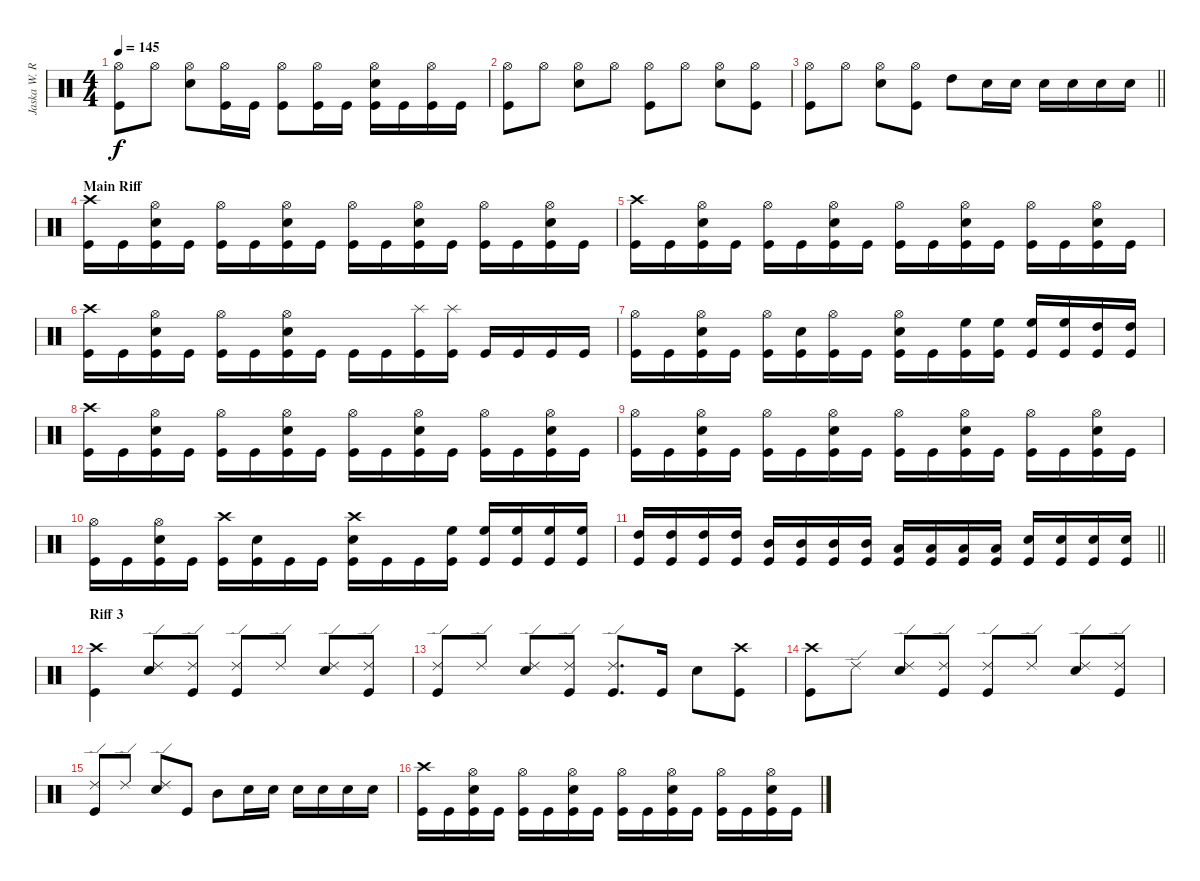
\track ("Jaska W. Raatikainen" "Jaska W. R") {instrument percussion}
\staff {score}
\articulation defaults
\ts (4 4)
\tempo 145
\clef neutral
\ks c
("Hi-Hat (open)" "Kick (hit)").8{dy f} "Hi-Hat (open)".8 ("Hi-Hat (open)" "Snare (hit) 2").8 ("Hi-Hat (open)" "Kick (hit)").16 "Kick (hit)".16 ("Hi-Hat (open)" "Kick (hit)").8 ("Hi-Hat (open)" "Kick (hit)").16 "Kick (hit)".16 ("Hi-Hat (open)" "Snare (hit) 2" "Kick (hit)").16 "Kick (hit)".16 ("Hi-Hat (open)" "Kick (hit)").16 "Kick (hit)".16 |
("Hi-Hat (open)" "Kick (hit)").8 "Hi-Hat (open)".8 ("Hi-Hat (open)" "Snare (hit) 2").8 "Hi-Hat (open)".8 ("Hi-Hat (open)" "Kick (hit)").8 "Hi-Hat (open)".8 ("Hi-Hat (open)" "Snare (hit) 2").8 ("Hi-Hat (open)" "Kick (hit)").8 |
\barLineRight lightlight
("Hi-Hat (open)" "Kick (hit)").8 "Hi-Hat (open)".8 ("Hi-Hat (open)" "Snare (hit) 2").8 ("Hi-Hat (open)" "Kick (hit)").8 "High Tom (hit)".8 "Snare (hit) 2".16 "Snare (hit) 2".16 "Snare (hit) 2".16 "Snare (hit) 2".16 "Snare (hit) 2".16 "Snare (hit) 2".16 |
\section ("" "Main Riff")
("Crash high (hit)" "Kick (hit)").16 "Kick (hit)".16 ("Hi-Hat (open)" "Snare (hit) 2" "Kick (hit)").16 "Kick (hit)".16 ("Hi-Hat (open)" "Kick (hit)").16 "Kick (hit)".16 ("Hi-Hat (open)" "Snare (hit) 2" "Kick (hit)").16 "Kick (hit)".16 ("Hi-Hat (open)" "Kick (hit)").16 "Kick (hit)".16 ("Hi-Hat (open)" "Snare (hit) 2" "Kick (hit)").16 "Kick (hit)".16 ("Hi-Hat (open)" "Kick (hit)").16 "Kick (hit)".16 ("Hi-Hat (open)" "Snare (hit) 2" "Kick (hit)").16 "Kick (hit)".16 |
("Crash high (hit)" "Kick (hit)").16 "Kick (hit)".16 ("Hi-Hat (open)" "Snare (hit) 2" "Kick (hit)").16 "Kick (hit)".16 ("Hi-Hat (open)" "Kick (hit)").16 "Kick (hit)".16 ("Hi-Hat (open)" "Snare (hit) 2" "Kick (hit)").16 "Kick (hit)".16 ("Hi-Hat (open)" "Kick (hit)").16 "Kick (hit)".16 ("Hi-Hat (open)" "Snare (hit) 2" "Kick (hit)").16 "Kick (hit)".16 ("Hi-Hat (open)" "Kick (hit)").16 "Kick (hit)".16 ("Hi-Hat (open)" "Snare (hit) 2" "Kick (hit)").16 "Kick (hit)".16 |
("Crash high (hit)" "Kick (hit)").16 "Kick (hit)".16 ("Hi-Hat (open)" "Snare (hit) 2" "Kick (hit)").16 "Kick (hit)".16 ("Hi-Hat (open)" "Kick (hit)").16 "Kick (hit)".16 ("Hi-Hat (open)" "Snare (hit) 2" "Kick (hit)").16 "Kick (hit)".16 "Kick (hit)".16 "Kick (hit)".16 ("Splash (hit)" "Kick (hit)").16 ("Splash (hit)" "Kick (hit)").16 "Kick (hit)".16 "Kick (hit)".16 "Kick (hit)".16 "Kick (hit)".16 |
("Hi-Hat (open)" "Kick (hit)").16 "Kick (hit)".16 ("Hi-Hat (open)" "Snare (hit) 2" "Kick (hit)").16 "Kick (hit)".16 ("Hi-Hat (open)" "Kick (hit)").16 ("Snare (hit) 2" "Kick (hit)").16 ("Hi-Hat (open)" "Kick (hit)").16 "Kick (hit)".16 ("Hi-Hat (open)" "Snare (hit) 2" "Kick (hit)").16 "Kick (hit)".16 ("High Floor Tom (hit)" "Kick (hit)").16 ("High Floor Tom (hit)" "Kick (hit)").16 ("High Floor Tom (hit)" "Kick (hit)").16 ("High Floor Tom (hit)" "Kick (hit)").16 ("High Tom (hit)" "Kick (hit)").16 ("High Tom (hit)" "Kick (hit)").16 |
("Crash high (hit)" "Kick (hit)").16 "Kick (hit)".16 ("Hi-Hat (open)" "Snare (hit) 2" "Kick (hit)").16 "Kick (hit)".16 ("Hi-Hat (open)" "Kick (hit)").16 "Kick (hit)".16 ("Hi-Hat (open)" "Snare (hit) 2" "Kick (hit)").16 "Kick (hit)".16 ("Hi-Hat (open)" "Kick (hit)").16 "Kick (hit)".16 ("Hi-Hat (open)" "Snare (hit) 2" "Kick (hit)").16 "Kick (hit)".16 ("Hi-Hat (open)" "Kick (hit)").16 "Kick (hit)".16 ("Hi-Hat (open)" "Snare (hit) 2" "Kick (hit)").16 "Kick (hit)".16 |
("Hi-Hat (open)" "Kick (hit)").16 "Kick (hit)".16 ("Hi-Hat (open)" "Snare (hit) 2" "Kick (hit)").16 "Kick (hit)".16 ("Hi-Hat (open)" "Kick (hit)").16 "Kick (hit)".16 ("Hi-Hat (open)" "Snare (hit) 2" "Kick (hit)").16 "Kick (hit)".16 ("Hi-Hat (open)" "Kick (hit)").16 "Kick (hit)".16 ("Hi-Hat (open)" "Snare (hit) 2" "Kick (hit)").16 "Kick (hit)".16 ("Hi-Hat (open)" "Kick (hit)").16 "Kick (hit)".16 ("Hi-Hat (open)" "Snare (hit) 2" "Kick (hit)").16 "Kick (hit)".16 |
("Hi-Hat (open)" "Kick (hit)").16 "Kick (hit)".16 ("Hi-Hat (open)" "Snare (hit) 2" "Kick (hit)").16 "Kick (hit)".16 ("Crash high (hit)" "Kick (hit)").16 ("Snare (hit) 2" "Kick (hit)").16 "Kick (hit)".16 "Kick (hit)".16 ("Crash high (hit)" "Snare (hit) 2" "Kick (hit)").16 "Kick (hit)".16 "Kick (hit)".16 ("High Floor Tom (hit)" "Kick (hit)").16 ("High Floor Tom (hit)" "Kick (hit)").16 ("High Floor Tom (hit)" "Kick (hit)").16 ("High Floor Tom (hit)" "Kick (hit)").16 ("High Floor Tom (hit)" "Kick (hit)").16 |
\barLineRight lightlight
("High Tom (hit)" "Kick (hit)").16 ("High Tom (hit)" "Kick (hit)").16 ("High Tom (hit)" "Kick (hit)").16 ("High Tom (hit)" "Kick (hit)").16 ("Mid Tom (hit)" "Kick (hit)").16 ("Mid Tom (hit)" "Kick (hit)").16 ("Mid Tom (hit)" "Kick (hit)").16 ("Mid Tom (hit)" "Kick (hit)").16 ("Low Tom (hit)" "Kick (hit)").16 ("Low Tom (hit)" "Kick (hit)").16 ("Low Tom (hit)" "Kick (hit)").16 ("Low Tom (hit)" "Kick (hit)").16 ("Snare (hit) 2" "Kick (hit)").16 ("Snare (hit) 2" "Kick (hit)").16 ("Snare (hit) 2" "Kick (hit)").16 ("Snare (hit) 2" "Kick (hit)").16 |
\section ("" "Riff 3")
("Crash high (hit)" "Kick (hit)").4 ("Ride (edge) 2" "Snare (hit) 2").8 ("Ride (edge) 2" "Kick (hit)").8 ("Ride (edge) 2" "Kick (hit)").8 "Ride (edge) 2".8 ("Ride (edge) 2" "Snare (hit) 2").8 ("Ride (edge) 2" "Kick (hit)").8 |
("Ride (edge) 2" "Kick (hit)").8 "Ride (edge) 2".8 ("Ride (edge) 2" "Snare (hit) 2").8 ("Ride (edge) 2" "Kick (hit)").8 ("Ride (edge) 2" "Kick (hit)").8{d} "Kick (hit)".16 "Snare (hit) 2".8 ("Crash high (hit)" "Kick (hit)").8 |
("Crash high (hit)" "Kick (hit)").8 "Ride (edge) 2".8 ("Ride (edge) 2" "Snare (hit) 2").8 ("Ride (edge) 2" "Kick (hit)").8 ("Ride (edge) 2" "Kick (hit)").8 "Ride (edge) 2".8 ("Ride (edge) 2" "Snare (hit) 2").8 ("Ride (edge) 2" "Kick (hit)").8 |
("Ride (edge) 2" "Kick (hit)").8 "Ride (edge) 2".8 ("Ride (edge) 2" "Snare (hit) 2").8 "Kick (hit)".8 "Mid Tom (hit)".8 "Snare (hit) 2".16 "Snare (hit) 2".16 "Snare (hit) 2".16 "Snare (hit) 2".16 "Snare (hit) 2".16 "Snare (hit) 2".16 |
("Crash high (hit)" "Kick (hit)").16 "Kick (hit)".16 ("Hi-Hat (open)" "Snare (hit) 2" "Kick (hit)").16 "Kick (hit)".16 ("Hi-Hat (open)" "Kick (hit)").16 "Kick (hit)".16 ("Hi-Hat (open)" "Snare (hit) 2" "Kick (hit)").16 "Kick (hit)".16 ("Hi-Hat (open)" "Kick (hit)").16 "Kick (hit)".16 ("Hi-Hat (open)" "Snare (hit) 2" "Kick (hit)").16 "Kick (hit)".16 ("Hi-Hat (open)" "Kick (hit)").16 "Kick (hit)".16 ("Hi-Hat (open)" "Snare (hit) 2" "Kick (hit)").16 "Kick (hit)".16
